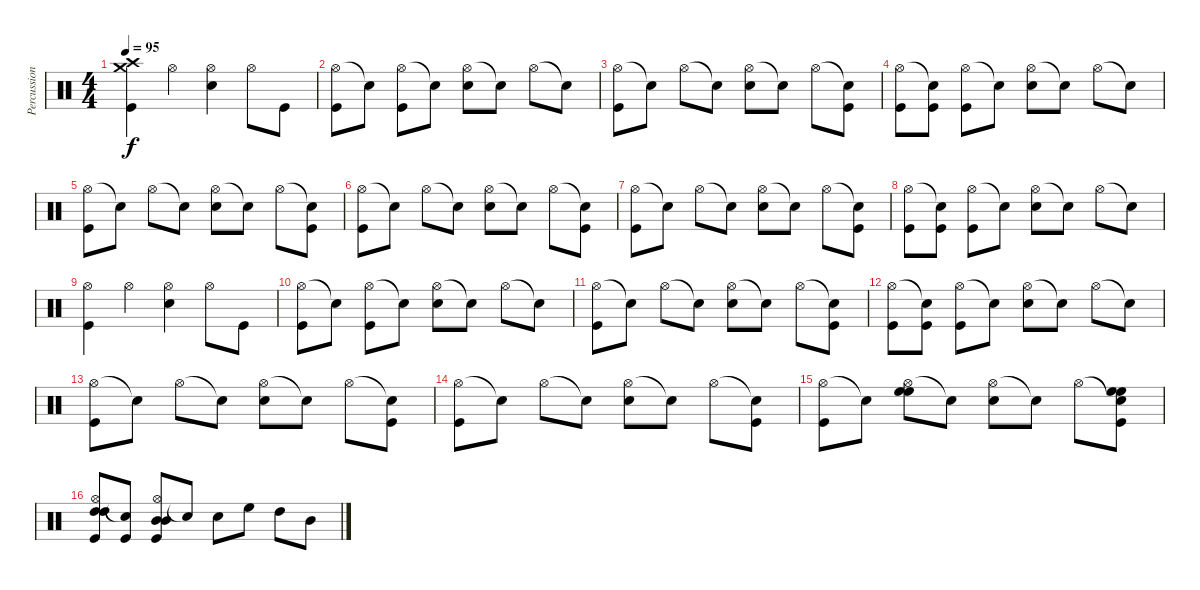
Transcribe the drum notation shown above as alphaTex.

\track ("Percussion" "Percussion") {instrument percussion}
\staff {score}
\articulation defaults
\ts (4 4)
\tempo 95
\clef neutral
\ks c
("Crash medium (hit)" "Crash high (hit)" "Kick (hit)").4{dy f} "Hi-Hat (open)".4 ("Hi-Hat (open)" "Snare (hit) 2").4 "Hi-Hat (open)".8 "Kick (hit)".8 |
("Hi-Hat (open)" "Kick (hit)").8 "Snare (hit)"{t}.8 ("Hi-Hat (open)" "Kick (hit)").8 "Snare (hit)"{t}.8 ("Hi-Hat (open)" "Snare (hit) 2").8 "Snare (hit)"{t}.8 "Hi-Hat (open)".8 "Snare (hit)"{t}.8 |
("Hi-Hat (open)" "Kick (hit)").8 "Snare (hit)"{t}.8 "Hi-Hat (open)".8 "Snare (hit)"{t}.8 ("Hi-Hat (open)" "Snare (hit) 2").8 "Snare (hit)"{t}.8 "Hi-Hat (open)".8 ("Snare (hit)"{t} "Kick (hit)").8 |
("Hi-Hat (open)" "Kick (hit)").8 ("Snare (hit)"{t} "Kick (hit)").8 ("Hi-Hat (open)" "Kick (hit)").8 "Snare (hit)"{t}.8 ("Hi-Hat (open)" "Snare (hit) 2").8 "Snare (hit)"{t}.8 "Hi-Hat (open)".8 "Snare (hit)"{t}.8 |
("Hi-Hat (open)" "Kick (hit)").8 "Snare (hit)"{t}.8 "Hi-Hat (open)".8 "Snare (hit)"{t}.8 ("Hi-Hat (open)" "Snare (hit) 2").8 "Snare (hit)"{t}.8 "Hi-Hat (open)".8 ("Snare (hit)"{t} "Kick (hit)").8 |
("Hi-Hat (open)" "Kick (hit)").8 "Snare (hit)"{t}.8 "Hi-Hat (open)".8 "Snare (hit)"{t}.8 ("Hi-Hat (open)" "Snare (hit) 2").8 "Snare (hit)"{t}.8 "Hi-Hat (open)".8 ("Snare (hit)"{t} "Kick (hit)").8 |
("Hi-Hat (open)" "Kick (hit)").8 "Snare (hit)"{t}.8 "Hi-Hat (open)".8 "Snare (hit)"{t}.8 ("Hi-Hat (open)" "Snare (hit) 2").8 "Snare (hit)"{t}.8 "Hi-Hat (open)".8 ("Snare (hit)"{t} "Kick (hit)").8 |
("Hi-Hat (open)" "Kick (hit)").8 ("Snare (hit)"{t} "Kick (hit)").8 ("Hi-Hat (open)" "Kick (hit)").8 "Snare (hit)"{t}.8 ("Hi-Hat (open)" "Snare (hit) 2").8 "Snare (hit)"{t}.8 "Hi-Hat (open)".8 "Snare (hit)"{t}.8 |
("Hi-Hat (open)" "Kick (hit)").4 "Hi-Hat (open)".4 ("Hi-Hat (open)" "Snare (hit) 2").4 "Hi-Hat (open)".8 "Kick (hit)".8 |
("Hi-Hat (open)" "Kick (hit)").8 "Snare (hit)"{t}.8 ("Hi-Hat (open)" "Kick (hit)").8 "Snare (hit)"{t}.8 ("Hi-Hat (open)" "Snare (hit) 2").8 "Snare (hit)"{t}.8 "Hi-Hat (open)".8 "Snare (hit)"{t}.8 |
("Hi-Hat (open)" "Kick (hit)").8 "Snare (hit)"{t}.8 "Hi-Hat (open)".8 "Snare (hit)"{t}.8 ("Hi-Hat (open)" "Snare (hit) 2").8 "Snare (hit)"{t}.8 "Hi-Hat (open)".8 ("Snare (hit)"{t} "Kick (hit)").8 |
("Hi-Hat (open)" "Kick (hit)").8 ("Snare (hit)"{t} "Kick (hit)").8 ("Hi-Hat (open)" "Kick (hit)").8 "Snare (hit)"{t}.8 ("Hi-Hat (open)" "Snare (hit) 2").8 "Snare (hit)"{t}.8 "Hi-Hat (open)".8 "Snare (hit)"{t}.8 |
("Hi-Hat (open)" "Kick (hit)").8 "Snare (hit)"{t}.8 "Hi-Hat (open)".8 "Snare (hit)"{t}.8 ("Hi-Hat (open)" "Snare (hit) 2").8 "Snare (hit)"{t}.8 "Hi-Hat (open)".8 ("Snare (hit)"{t} "Kick (hit)").8 |
("Hi-Hat (open)" "Kick (hit)").8 "Snare (hit)"{t}.8 "Hi-Hat (open)".8 "Snare (hit)"{t}.8 ("Hi-Hat (open)" "Snare (hit) 2").8 "Snare (hit)"{t}.8 "Hi-Hat (open)".8 ("Snare (hit)"{t} "Kick (hit)").8 |
("Hi-Hat (open)" "Kick (hit)").8 "Snare (hit)"{t}.8 ("Hi-Hat (open)" "High Floor Tom (hit)" "High Floor Tom (hit)").8 "Snare (hit)"{t}.8 ("Hi-Hat (open)" "Snare (hit) 2").8 "Snare (hit)"{t}.8 "Hi-Hat (open)".8 ("Snare (hit)"{t} "High Floor Tom (hit)" "Kick (hit)" "High Floor Tom (hit)").8 |
("Hi-Hat (open)" "High Tom (hit)" "Kick (hit)" "High Tom (hit)").8 ("Snare (hit)"{t} "Kick (hit)").8 ("Hi-Hat (open)" "Mid Tom (hit)" "Kick (hit)" "Mid Tom (hit)").8 "Snare (hit)"{t}.8 "Snare (hit) 2".8 "High Floor Tom (hit)".8 "High Tom (hit)".8 "Mid Tom (hit)".8
